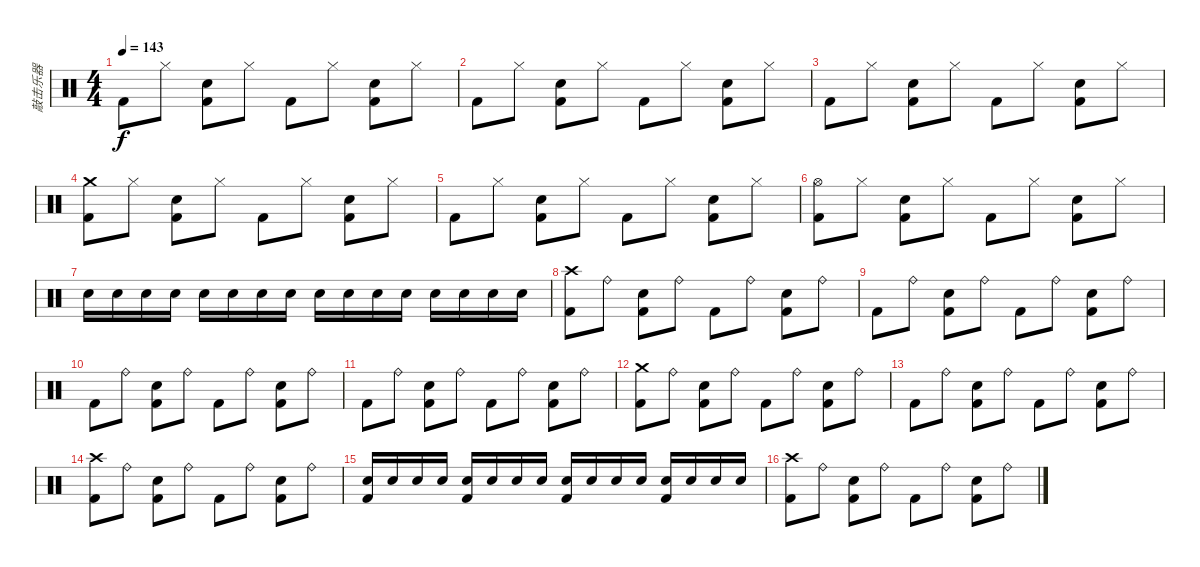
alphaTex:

\track ("敲击乐器" "敲击乐器") {instrument percussion}
\staff {score}
\articulation defaults
\ts (4 4)
\tempo 143
\clef neutral
\ks c "Kick (hit) 2".8{dy f} "Hi-Hat (closed)".8
("Electric Snare (hit)" "Kick (hit) 2").8 "Hi-Hat (closed)".8 "Kick (hit) 2".8 "Hi-Hat (closed)".8 ("Electric Snare (hit)" "Kick (hit) 2").8 "Hi-Hat (closed)".8 |
"Kick (hit) 2".8 "Hi-Hat (closed)".8 ("Electric Snare (hit)" "Kick (hit) 2").8 "Hi-Hat (closed)".8 "Kick (hit) 2".8 "Hi-Hat (closed)".8 ("Electric Snare (hit)" "Kick (hit) 2").8 "Hi-Hat (closed)".8 |
"Kick (hit) 2".8 "Hi-Hat (closed)".8 ("Electric Snare (hit)" "Kick (hit) 2").8 "Hi-Hat (closed)".8 "Kick (hit) 2".8 "Hi-Hat (closed)".8 ("Electric Snare (hit)" "Kick (hit) 2").8 "Hi-Hat (closed)".8 |
("Crash medium (hit)" "Kick (hit) 2").8 "Hi-Hat (closed)".8 ("Electric Snare (hit)" "Kick (hit) 2").8 "Hi-Hat (closed)".8 "Kick (hit) 2".8 "Hi-Hat (closed)".8 ("Electric Snare (hit)" "Kick (hit) 2").8 "Hi-Hat (closed)".8 |
"Kick (hit) 2".8 "Hi-Hat (closed)".8 ("Electric Snare (hit)" "Kick (hit) 2").8 "Hi-Hat (closed)".8 "Kick (hit) 2".8 "Hi-Hat (closed)".8 ("Electric Snare (hit)" "Kick (hit) 2").8 "Hi-Hat (closed)".8 |
("Hi-Hat (open)" "Kick (hit) 2").8 "Hi-Hat (closed)".8 ("Electric Snare (hit)" "Kick (hit) 2").8 "Hi-Hat (closed)".8 "Kick (hit) 2".8 "Hi-Hat (closed)".8 ("Electric Snare (hit)" "Kick (hit) 2").8 "Hi-Hat (closed)".8 |
"Electric Snare (hit)".16 "Electric Snare (hit)".16 "Electric Snare (hit)".16 "Electric Snare (hit)".16 "Electric Snare (hit)".16 "Electric Snare (hit)".16 "Electric Snare (hit)".16 "Electric Snare (hit)".16 "Electric Snare (hit)".16 "Electric Snare (hit)".16 "Electric Snare (hit)".16 "Electric Snare (hit)".16 "Electric Snare (hit)".16 "Electric Snare (hit)".16 "Electric Snare (hit)".16 "Electric Snare (hit)".16 |
("Crash high (hit)" "Kick (hit) 2").8 "Ride (bell)".8 ("Electric Snare (hit)" "Kick (hit) 2").8 "Ride (bell)".8 "Kick (hit) 2".8 "Ride (bell)".8 ("Electric Snare (hit)" "Kick (hit) 2").8 "Ride (bell)".8 |
"Kick (hit) 2".8 "Ride (bell)".8 ("Electric Snare (hit)" "Kick (hit) 2").8 "Ride (bell)".8 "Kick (hit) 2".8 "Ride (bell)".8 ("Electric Snare (hit)" "Kick (hit) 2").8 "Ride (bell)".8 |
"Kick (hit) 2".8 "Ride (bell)".8 ("Electric Snare (hit)" "Kick (hit) 2").8 "Ride (bell)".8 "Kick (hit) 2".8 "Ride (bell)".8 ("Electric Snare (hit)" "Kick (hit) 2").8 "Ride (bell)".8 |
"Kick (hit) 2".8 "Ride (bell)".8 ("Electric Snare (hit)" "Kick (hit) 2").8 "Ride (bell)".8 "Kick (hit) 2".8 "Ride (bell)".8 ("Electric Snare (hit)" "Kick (hit) 2").8 "Ride (bell)".8 |
("Crash medium (hit)" "Kick (hit) 2").8 "Ride (bell)".8 ("Electric Snare (hit)" "Kick (hit) 2").8 "Ride (bell)".8 "Kick (hit) 2".8 "Ride (bell)".8 ("Electric Snare (hit)" "Kick (hit) 2").8 "Ride (bell)".8 |
"Kick (hit) 2".8 "Ride (bell)".8 ("Electric Snare (hit)" "Kick (hit) 2").8 "Ride (bell)".8 "Kick (hit) 2".8 "Ride (bell)".8 ("Electric Snare (hit)" "Kick (hit) 2").8 "Ride (bell)".8 |
("Crash high (hit)" "Kick (hit) 2").8 "Ride (bell)".8 ("Electric Snare (hit)" "Kick (hit) 2").8 "Ride (bell)".8 "Kick (hit) 2".8 "Ride (bell)".8 ("Electric Snare (hit)" "Kick (hit) 2").8 "Ride (bell)".8 |
("Electric Snare (hit)" "Kick (hit) 2").16 "Electric Snare (hit)".16 "Electric Snare (hit)".16 "Electric Snare (hit)".16 ("Electric Snare (hit)" "Kick (hit) 2").16 "Electric Snare (hit)".16 "Electric Snare (hit)".16 "Electric Snare (hit)".16 ("Electric Snare (hit)" "Kick (hit) 2").16 "Electric Snare (hit)".16 "Electric Snare (hit)".16 "Electric Snare (hit)".16 ("Electric Snare (hit)" "Kick (hit) 2").16 "Electric Snare (hit)".16 "Electric Snare (hit)".16 "Electric Snare (hit)".16 |
("Crash high (hit)" "Kick (hit) 2").8 "Ride (bell)".8 ("Electric Snare (hit)" "Kick (hit) 2").8 "Ride (bell)".8 "Kick (hit) 2".8 "Ride (bell)".8 ("Electric Snare (hit)" "Kick (hit) 2").8 "Ride (bell)".8
